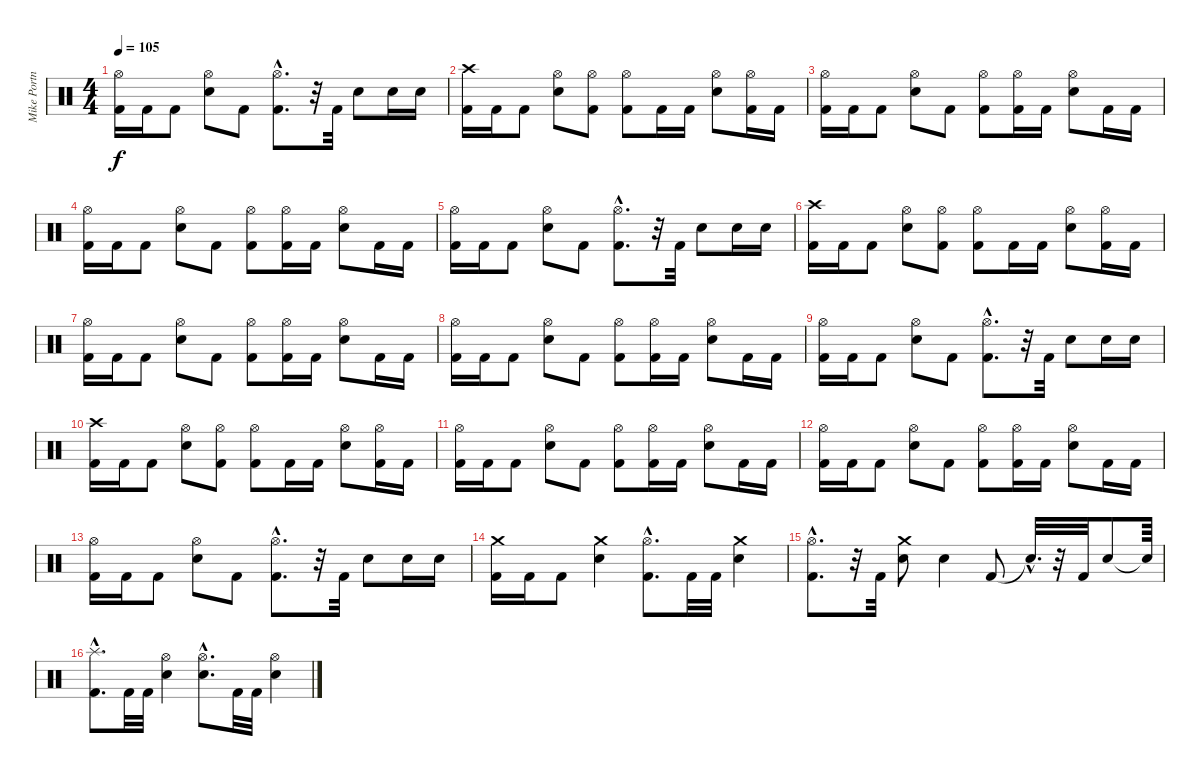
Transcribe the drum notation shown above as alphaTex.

\track ("Mike Portnoy" "Mike Portn") {instrument percussion}
\staff {score}
\articulation defaults
\ts (4 4)
\tempo 105
\clef neutral
\ks c
("Hi-Hat (open)" "Kick (hit) 2").16{dy f} "Kick (hit) 2".16 "Kick (hit) 2".8 ("Hi-Hat (open)" "Electric Snare (hit)").8 "Kick (hit) 2".8 ("Hi-Hat (open)"{hac} "Kick (hit) 2"{hac}).8{d} r.32 "Kick (hit) 2".32 "Electric Snare (hit)".8 "Electric Snare (hit)".16 "Electric Snare (hit)".16 |
("Crash high (hit)" "Kick (hit) 2").16 "Kick (hit) 2".16 "Kick (hit) 2".8 ("Hi-Hat (open)" "Electric Snare (hit)").8 ("Hi-Hat (open)" "Kick (hit) 2").8 ("Hi-Hat (open)" "Kick (hit) 2").8 "Kick (hit) 2".16 "Kick (hit) 2".16 ("Hi-Hat (open)" "Electric Snare (hit)").8 ("Hi-Hat (open)" "Kick (hit) 2").16 "Kick (hit) 2".16 |
("Hi-Hat (open)" "Kick (hit) 2").16 "Kick (hit) 2".16 "Kick (hit) 2".8 ("Hi-Hat (open)" "Electric Snare (hit)").8 "Kick (hit) 2".8 ("Hi-Hat (open)" "Kick (hit) 2").8 ("Hi-Hat (open)" "Kick (hit) 2").16 "Kick (hit) 2".16 ("Hi-Hat (open)" "Electric Snare (hit)").8 "Kick (hit) 2".16 "Kick (hit) 2".16 |
("Hi-Hat (open)" "Kick (hit) 2").16 "Kick (hit) 2".16 "Kick (hit) 2".8 ("Hi-Hat (open)" "Electric Snare (hit)").8 "Kick (hit) 2".8 ("Hi-Hat (open)" "Kick (hit) 2").8 ("Hi-Hat (open)" "Kick (hit) 2").16 "Kick (hit) 2".16 ("Hi-Hat (open)" "Electric Snare (hit)").8 "Kick (hit) 2".16 "Kick (hit) 2".16 |
("Hi-Hat (open)" "Kick (hit) 2").16 "Kick (hit) 2".16 "Kick (hit) 2".8 ("Hi-Hat (open)" "Electric Snare (hit)").8 "Kick (hit) 2".8 ("Hi-Hat (open)"{hac} "Kick (hit) 2"{hac}).8{d} r.32 "Kick (hit) 2".32 "Electric Snare (hit)".8 "Electric Snare (hit)".16 "Electric Snare (hit)".16 |
("Crash high (hit)" "Kick (hit) 2").16 "Kick (hit) 2".16 "Kick (hit) 2".8 ("Hi-Hat (open)" "Electric Snare (hit)").8 ("Hi-Hat (open)" "Kick (hit) 2").8 ("Hi-Hat (open)" "Kick (hit) 2").8 "Kick (hit) 2".16 "Kick (hit) 2".16 ("Hi-Hat (open)" "Electric Snare (hit)").8 ("Hi-Hat (open)" "Kick (hit) 2").16 "Kick (hit) 2".16 |
("Hi-Hat (open)" "Kick (hit) 2").16 "Kick (hit) 2".16 "Kick (hit) 2".8 ("Hi-Hat (open)" "Electric Snare (hit)").8 "Kick (hit) 2".8 ("Hi-Hat (open)" "Kick (hit) 2").8 ("Hi-Hat (open)" "Kick (hit) 2").16 "Kick (hit) 2".16 ("Hi-Hat (open)" "Electric Snare (hit)").8 "Kick (hit) 2".16 "Kick (hit) 2".16 |
("Hi-Hat (open)" "Kick (hit) 2").16 "Kick (hit) 2".16 "Kick (hit) 2".8 ("Hi-Hat (open)" "Electric Snare (hit)").8 "Kick (hit) 2".8 ("Hi-Hat (open)" "Kick (hit) 2").8 ("Hi-Hat (open)" "Kick (hit) 2").16 "Kick (hit) 2".16 ("Hi-Hat (open)" "Electric Snare (hit)").8 "Kick (hit) 2".16 "Kick (hit) 2".16 |
("Hi-Hat (open)" "Kick (hit) 2").16 "Kick (hit) 2".16 "Kick (hit) 2".8 ("Hi-Hat (open)" "Electric Snare (hit)").8 "Kick (hit) 2".8 ("Hi-Hat (open)"{hac} "Kick (hit) 2"{hac}).8{d} r.32 "Kick (hit) 2".32 "Electric Snare (hit)".8 "Electric Snare (hit)".16 "Electric Snare (hit)".16 |
("Crash high (hit)" "Kick (hit) 2").16 "Kick (hit) 2".16 "Kick (hit) 2".8 ("Hi-Hat (open)" "Electric Snare (hit)").8 ("Hi-Hat (open)" "Kick (hit) 2").8 ("Hi-Hat (open)" "Kick (hit) 2").8 "Kick (hit) 2".16 "Kick (hit) 2".16 ("Hi-Hat (open)" "Electric Snare (hit)").8 ("Hi-Hat (open)" "Kick (hit) 2").16 "Kick (hit) 2".16 |
("Hi-Hat (open)" "Kick (hit) 2").16 "Kick (hit) 2".16 "Kick (hit) 2".8 ("Hi-Hat (open)" "Electric Snare (hit)").8 "Kick (hit) 2".8 ("Hi-Hat (open)" "Kick (hit) 2").8 ("Hi-Hat (open)" "Kick (hit) 2").16 "Kick (hit) 2".16 ("Hi-Hat (open)" "Electric Snare (hit)").8 "Kick (hit) 2".16 "Kick (hit) 2".16 |
("Hi-Hat (open)" "Kick (hit) 2").16 "Kick (hit) 2".16 "Kick (hit) 2".8 ("Hi-Hat (open)" "Electric Snare (hit)").8 "Kick (hit) 2".8 ("Hi-Hat (open)" "Kick (hit) 2").8 ("Hi-Hat (open)" "Kick (hit) 2").16 "Kick (hit) 2".16 ("Hi-Hat (open)" "Electric Snare (hit)").8 "Kick (hit) 2".16 "Kick (hit) 2".16 |
("Hi-Hat (open)" "Kick (hit) 2").16 "Kick (hit) 2".16 "Kick (hit) 2".8 ("Hi-Hat (open)" "Electric Snare (hit)").8 "Kick (hit) 2".8 ("Hi-Hat (open)"{hac} "Kick (hit) 2"{hac}).8{d} r.32 "Kick (hit) 2".32 "Electric Snare (hit)".8 "Electric Snare (hit)".16 "Electric Snare (hit)".16 |
("Crash medium (hit)" "Kick (hit) 2").16 "Kick (hit) 2".16 "Kick (hit) 2".8 ("Crash medium (hit)" "Electric Snare (hit)").4 ("Hi-Hat (open)"{hac} "Kick (hit) 2"{hac}).8{d} "Kick (hit) 2".32 "Kick (hit) 2".32 ("Crash medium (hit)" "Electric Snare (hit)").4 |
("Hi-Hat (open)"{hac} "Kick (hit) 2"{hac}).8{d} r.32 "Kick (hit) 2".32 ("Crash medium (hit)" "Electric Snare (hit)").8 "Electric Snare (hit)".4 "Kick (hit) 2".8 "Snare (hit)"{hac t}.32{d} r.32 "Kick (hit) 2".32 "Electric Snare (hit)".8 "Snare (hit)"{t}.64 |
("Splash (hit)"{hac} "Kick (hit) 2"{hac}).8{d} "Kick (hit) 2".32 "Kick (hit) 2".32 ("Hi-Hat (open)" "Electric Snare (hit)").4 ("Hi-Hat (open)"{hac} "Electric Snare (hit)"{hac}).8{d} "Kick (hit) 2".32 "Kick (hit) 2".32 ("Hi-Hat (open)" "Electric Snare (hit)").4
